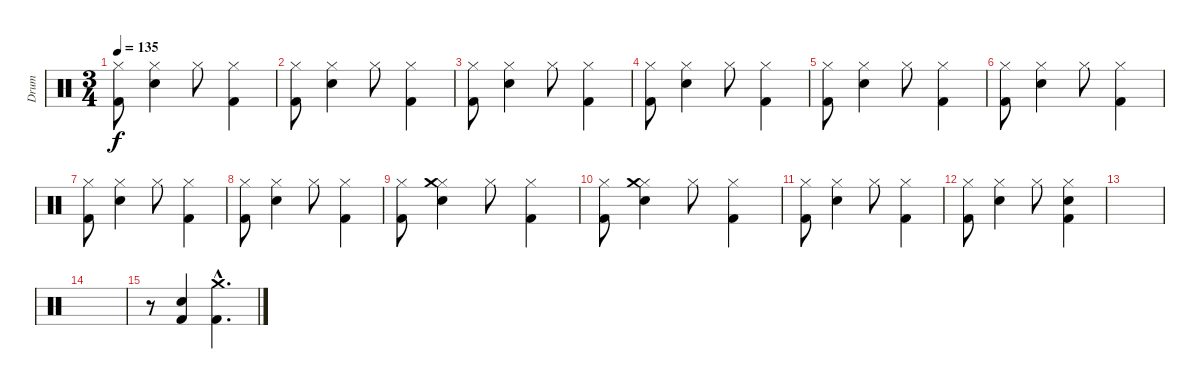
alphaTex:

\track ("Drum" "Drum") {instrument percussion}
\staff {score}
\articulation defaults
\ts (3 4)
\tempo 135
\clef neutral
\ks c
("Hi-Hat (closed)" "Kick (hit) 2").8{dy f} ("Hi-Hat (closed)" "Snare (hit) 2").4 "Hi-Hat (closed)".8 ("Hi-Hat (closed)" "Kick (hit) 2").4 |
("Hi-Hat (closed)" "Kick (hit) 2").8 ("Hi-Hat (closed)" "Snare (hit) 2").4 "Hi-Hat (closed)".8 ("Hi-Hat (closed)" "Kick (hit) 2").4 |
("Hi-Hat (closed)" "Kick (hit) 2").8 ("Hi-Hat (closed)" "Snare (hit) 2").4 "Hi-Hat (closed)".8 ("Hi-Hat (closed)" "Kick (hit) 2").4 |
("Hi-Hat (closed)" "Kick (hit) 2").8 ("Hi-Hat (closed)" "Snare (hit) 2").4 "Hi-Hat (closed)".8 ("Hi-Hat (closed)" "Kick (hit) 2").4 |
("Hi-Hat (closed)" "Kick (hit) 2").8 ("Hi-Hat (closed)" "Snare (hit) 2").4 "Hi-Hat (closed)".8 ("Hi-Hat (closed)" "Kick (hit) 2").4 |
("Hi-Hat (closed)" "Kick (hit) 2").8 ("Hi-Hat (closed)" "Snare (hit) 2").4 "Hi-Hat (closed)".8 ("Hi-Hat (closed)" "Kick (hit) 2").4 |
("Hi-Hat (closed)" "Kick (hit) 2").8 ("Hi-Hat (closed)" "Snare (hit) 2").4 "Hi-Hat (closed)".8 ("Hi-Hat (closed)" "Kick (hit) 2").4 |
("Hi-Hat (closed)" "Kick (hit) 2").8 ("Hi-Hat (closed)" "Snare (hit) 2").4 "Hi-Hat (closed)".8 ("Hi-Hat (closed)" "Kick (hit) 2").4 |
("Hi-Hat (closed)" "Kick (hit) 2").8 ("Hi-Hat (closed)" "Snare (hit) 2" "Crash medium (hit)").4 "Hi-Hat (closed)".8 ("Hi-Hat (closed)" "Kick (hit) 2").4 |
("Hi-Hat (closed)" "Kick (hit) 2").8 ("Hi-Hat (closed)" "Snare (hit) 2" "Crash medium (hit)").4 "Hi-Hat (closed)".8 ("Hi-Hat (closed)" "Kick (hit) 2").4 |
("Hi-Hat (closed)" "Kick (hit) 2").8 ("Hi-Hat (closed)" "Snare (hit) 2").4 "Hi-Hat (closed)".8 ("Hi-Hat (closed)" "Kick (hit) 2").4 |
("Hi-Hat (closed)" "Kick (hit) 2").8 ("Hi-Hat (closed)" "Snare (hit) 2").4 "Hi-Hat (closed)".8 ("Hi-Hat (closed)" "Snare (hit) 2" "Kick (hit) 2").4 |
|
|
r.8 ("Kick (hit) 2" "Snare (hit) 2").4 ("Kick (hit) 2"{hac} "Crash medium (hit)"{hac}).4{d}
